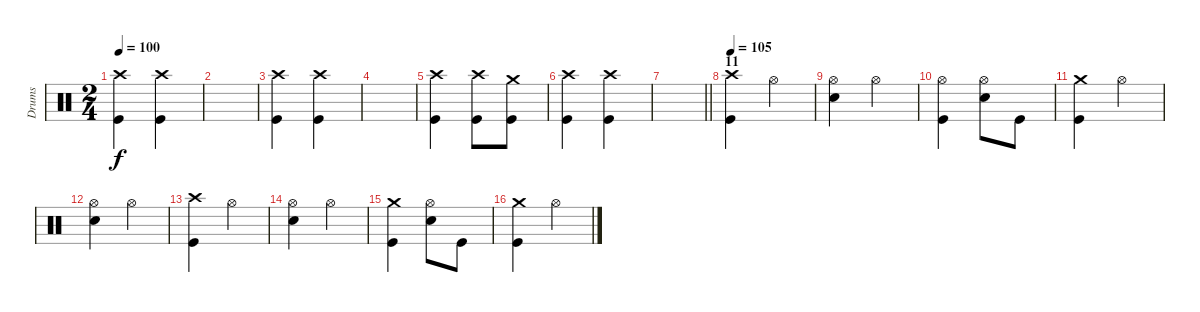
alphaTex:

\track ("Drums" "Drums") {instrument percussion}
\staff {score}
\articulation defaults
\ts (2 4)
\tempo 100
\clef neutral
\ks c
("Crash high (hit)" "Kick (hit)").4{dy f} ("Crash high (hit)" "Kick (hit)").4 |
|
("Crash high (hit)" "Kick (hit)").4 ("Crash high (hit)" "Kick (hit)").4 |
|
("Crash high (hit)" "Kick (hit)").4 ("Crash high (hit)" "Kick (hit)").8 ("Crash medium (hit)" "Kick (hit)").8 |
("Crash high (hit)" "Kick (hit)").4 ("Crash high (hit)" "Kick (hit)").4 |
\barLineRight lightlight
|
\section ("" "11")
\tempo 105
("Crash high (hit)" "Kick (hit)").4 "Hi-Hat (open)".4 |
("Hi-Hat (open)" "Electric Snare (hit)").4 "Hi-Hat (open)".4 |
("Hi-Hat (open)" "Kick (hit)").4 ("Hi-Hat (open)" "Electric Snare (hit)").8 "Kick (hit)".8 |
("Crash medium (hit)" "Kick (hit)").4 "Hi-Hat (open)".4 |
("Hi-Hat (open)" "Electric Snare (hit)").4 "Hi-Hat (open)".4 |
("Crash high (hit)" "Kick (hit)").4 "Hi-Hat (open)".4 |
("Hi-Hat (open)" "Electric Snare (hit)").4 "Hi-Hat (open)".4 |
("Crash medium (hit)" "Kick (hit)").4 ("Hi-Hat (open)" "Electric Snare (hit)").8 "Kick (hit)".8 |
("Crash medium (hit)" "Kick (hit)").4 "Hi-Hat (open)".4
